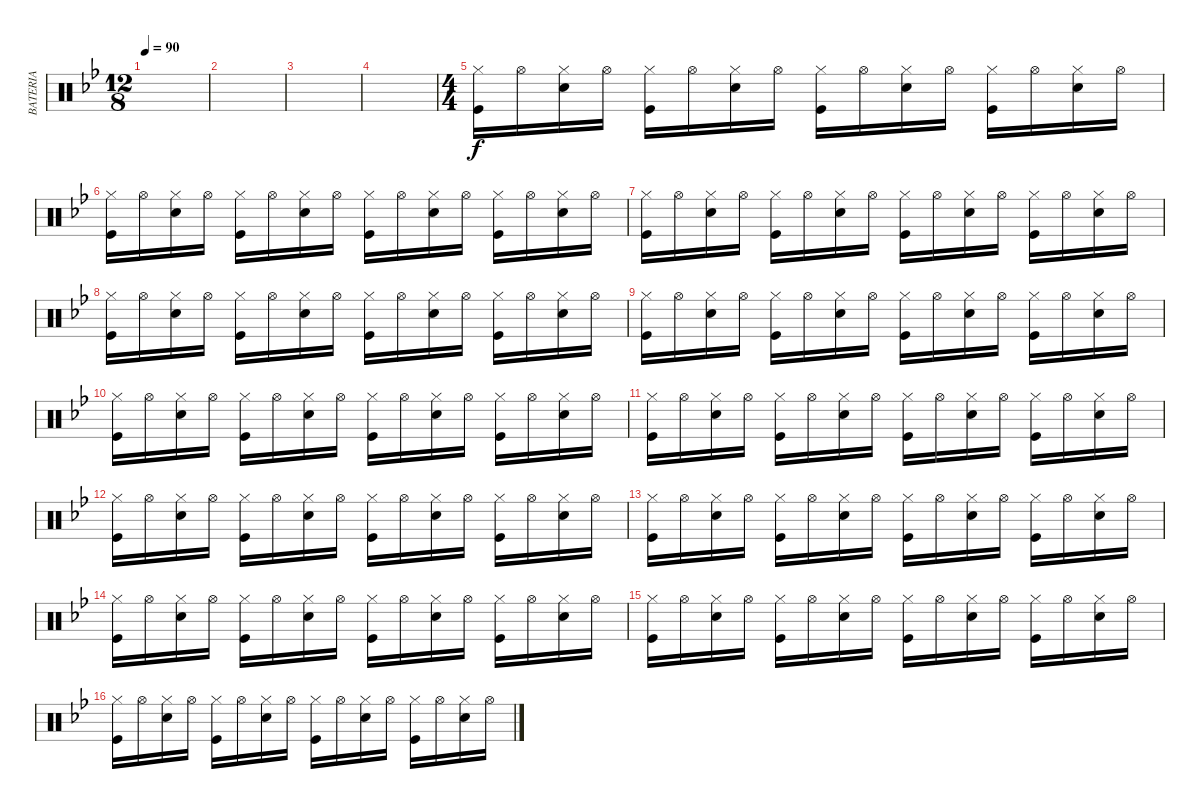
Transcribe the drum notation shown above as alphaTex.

\track ("BATERIA" "BATERIA") {instrument percussion}
\staff {score}
\articulation defaults
\ts (12 8)
\tempo 90
\clef neutral
\ks gminor
|
|
|
|
\ts (4 4)
("Hi-Hat (closed)" "Kick (hit)").16 "Hi-Hat (open)".16 ("Hi-Hat (closed)" "Snare (hit) 2").16 "Hi-Hat (open)".16 ("Hi-Hat (closed)" "Kick (hit)").16 "Hi-Hat (open)".16 ("Hi-Hat (closed)" "Snare (hit) 2").16 "Hi-Hat (open)".16 ("Hi-Hat (closed)" "Kick (hit)").16 "Hi-Hat (open)".16 ("Hi-Hat (closed)" "Snare (hit) 2").16 "Hi-Hat (open)".16 ("Hi-Hat (closed)" "Kick (hit)").16 "Hi-Hat (open)".16 ("Hi-Hat (closed)" "Snare (hit) 2").16 "Hi-Hat (open)".16 |
("Hi-Hat (closed)" "Kick (hit)").16 "Hi-Hat (open)".16 ("Hi-Hat (closed)" "Snare (hit) 2").16 "Hi-Hat (open)".16 ("Hi-Hat (closed)" "Kick (hit)").16 "Hi-Hat (open)".16 ("Hi-Hat (closed)" "Snare (hit) 2").16 "Hi-Hat (open)".16 ("Hi-Hat (closed)" "Kick (hit)").16 "Hi-Hat (open)".16 ("Hi-Hat (closed)" "Snare (hit) 2").16 "Hi-Hat (open)".16 ("Hi-Hat (closed)" "Kick (hit)").16 "Hi-Hat (open)".16 ("Hi-Hat (closed)" "Snare (hit) 2").16 "Hi-Hat (open)".16 |
("Hi-Hat (closed)" "Kick (hit)").16 "Hi-Hat (open)".16 ("Hi-Hat (closed)" "Snare (hit) 2").16 "Hi-Hat (open)".16 ("Hi-Hat (closed)" "Kick (hit)").16 "Hi-Hat (open)".16 ("Hi-Hat (closed)" "Snare (hit) 2").16 "Hi-Hat (open)".16 ("Hi-Hat (closed)" "Kick (hit)").16 "Hi-Hat (open)".16 ("Hi-Hat (closed)" "Snare (hit) 2").16 "Hi-Hat (open)".16 ("Hi-Hat (closed)" "Kick (hit)").16 "Hi-Hat (open)".16 ("Hi-Hat (closed)" "Snare (hit) 2").16 "Hi-Hat (open)".16 |
("Hi-Hat (closed)" "Kick (hit)").16 "Hi-Hat (open)".16 ("Hi-Hat (closed)" "Snare (hit) 2").16 "Hi-Hat (open)".16 ("Hi-Hat (closed)" "Kick (hit)").16 "Hi-Hat (open)".16 ("Hi-Hat (closed)" "Snare (hit) 2").16 "Hi-Hat (open)".16 ("Hi-Hat (closed)" "Kick (hit)").16 "Hi-Hat (open)".16 ("Hi-Hat (closed)" "Snare (hit) 2").16 "Hi-Hat (open)".16 ("Hi-Hat (closed)" "Kick (hit)").16 "Hi-Hat (open)".16 ("Hi-Hat (closed)" "Snare (hit) 2").16 "Hi-Hat (open)".16 |
("Hi-Hat (closed)" "Kick (hit)").16 "Hi-Hat (open)".16 ("Hi-Hat (closed)" "Snare (hit) 2").16 "Hi-Hat (open)".16 ("Hi-Hat (closed)" "Kick (hit)").16 "Hi-Hat (open)".16 ("Hi-Hat (closed)" "Snare (hit) 2").16 "Hi-Hat (open)".16 ("Hi-Hat (closed)" "Kick (hit)").16 "Hi-Hat (open)".16 ("Hi-Hat (closed)" "Snare (hit) 2").16 "Hi-Hat (open)".16 ("Hi-Hat (closed)" "Kick (hit)").16 "Hi-Hat (open)".16 ("Hi-Hat (closed)" "Snare (hit) 2").16 "Hi-Hat (open)".16 |
("Hi-Hat (closed)" "Kick (hit)").16 "Hi-Hat (open)".16 ("Hi-Hat (closed)" "Snare (hit) 2").16 "Hi-Hat (open)".16 ("Hi-Hat (closed)" "Kick (hit)").16 "Hi-Hat (open)".16 ("Hi-Hat (closed)" "Snare (hit) 2").16 "Hi-Hat (open)".16 ("Hi-Hat (closed)" "Kick (hit)").16 "Hi-Hat (open)".16 ("Hi-Hat (closed)" "Snare (hit) 2").16 "Hi-Hat (open)".16 ("Hi-Hat (closed)" "Kick (hit)").16 "Hi-Hat (open)".16 ("Hi-Hat (closed)" "Snare (hit) 2").16 "Hi-Hat (open)".16 |
("Hi-Hat (closed)" "Kick (hit)").16 "Hi-Hat (open)".16 ("Hi-Hat (closed)" "Snare (hit) 2").16 "Hi-Hat (open)".16 ("Hi-Hat (closed)" "Kick (hit)").16 "Hi-Hat (open)".16 ("Hi-Hat (closed)" "Snare (hit) 2").16 "Hi-Hat (open)".16 ("Hi-Hat (closed)" "Kick (hit)").16 "Hi-Hat (open)".16 ("Hi-Hat (closed)" "Snare (hit) 2").16 "Hi-Hat (open)".16 ("Hi-Hat (closed)" "Kick (hit)").16 "Hi-Hat (open)".16 ("Hi-Hat (closed)" "Snare (hit) 2").16 "Hi-Hat (open)".16 |
("Hi-Hat (closed)" "Kick (hit)").16 "Hi-Hat (open)".16 ("Hi-Hat (closed)" "Snare (hit) 2").16 "Hi-Hat (open)".16 ("Hi-Hat (closed)" "Kick (hit)").16 "Hi-Hat (open)".16 ("Hi-Hat (closed)" "Snare (hit) 2").16 "Hi-Hat (open)".16 ("Hi-Hat (closed)" "Kick (hit)").16 "Hi-Hat (open)".16 ("Hi-Hat (closed)" "Snare (hit) 2").16 "Hi-Hat (open)".16 ("Hi-Hat (closed)" "Kick (hit)").16 "Hi-Hat (open)".16 ("Hi-Hat (closed)" "Snare (hit) 2").16 "Hi-Hat (open)".16 |
("Hi-Hat (closed)" "Kick (hit)").16 "Hi-Hat (open)".16 ("Hi-Hat (closed)" "Snare (hit) 2").16 "Hi-Hat (open)".16 ("Hi-Hat (closed)" "Kick (hit)").16 "Hi-Hat (open)".16 ("Hi-Hat (closed)" "Snare (hit) 2").16 "Hi-Hat (open)".16 ("Hi-Hat (closed)" "Kick (hit)").16 "Hi-Hat (open)".16 ("Hi-Hat (closed)" "Snare (hit) 2").16 "Hi-Hat (open)".16 ("Hi-Hat (closed)" "Kick (hit)").16 "Hi-Hat (open)".16 ("Hi-Hat (closed)" "Snare (hit) 2").16 "Hi-Hat (open)".16 |
("Hi-Hat (closed)" "Kick (hit)").16 "Hi-Hat (open)".16 ("Hi-Hat (closed)" "Snare (hit) 2").16 "Hi-Hat (open)".16 ("Hi-Hat (closed)" "Kick (hit)").16 "Hi-Hat (open)".16 ("Hi-Hat (closed)" "Snare (hit) 2").16 "Hi-Hat (open)".16 ("Hi-Hat (closed)" "Kick (hit)").16 "Hi-Hat (open)".16 ("Hi-Hat (closed)" "Snare (hit) 2").16 "Hi-Hat (open)".16 ("Hi-Hat (closed)" "Kick (hit)").16 "Hi-Hat (open)".16 ("Hi-Hat (closed)" "Snare (hit) 2").16 "Hi-Hat (open)".16 |
("Hi-Hat (closed)" "Kick (hit)").16 "Hi-Hat (open)".16 ("Hi-Hat (closed)" "Snare (hit) 2").16 "Hi-Hat (open)".16 ("Hi-Hat (closed)" "Kick (hit)").16 "Hi-Hat (open)".16 ("Hi-Hat (closed)" "Snare (hit) 2").16 "Hi-Hat (open)".16 ("Hi-Hat (closed)" "Kick (hit)").16 "Hi-Hat (open)".16 ("Hi-Hat (closed)" "Snare (hit) 2").16 "Hi-Hat (open)".16 ("Hi-Hat (closed)" "Kick (hit)").16 "Hi-Hat (open)".16 ("Hi-Hat (closed)" "Snare (hit) 2").16 "Hi-Hat (open)".16 |
("Hi-Hat (closed)" "Kick (hit)").16 "Hi-Hat (open)".16 ("Hi-Hat (closed)" "Snare (hit) 2").16 "Hi-Hat (open)".16 ("Hi-Hat (closed)" "Kick (hit)").16 "Hi-Hat (open)".16 ("Hi-Hat (closed)" "Snare (hit) 2").16 "Hi-Hat (open)".16 ("Hi-Hat (closed)" "Kick (hit)").16 "Hi-Hat (open)".16 ("Hi-Hat (closed)" "Snare (hit) 2").16 "Hi-Hat (open)".16 ("Hi-Hat (closed)" "Kick (hit)").16 "Hi-Hat (open)".16 ("Hi-Hat (closed)" "Snare (hit) 2").16 "Hi-Hat (open)".16
